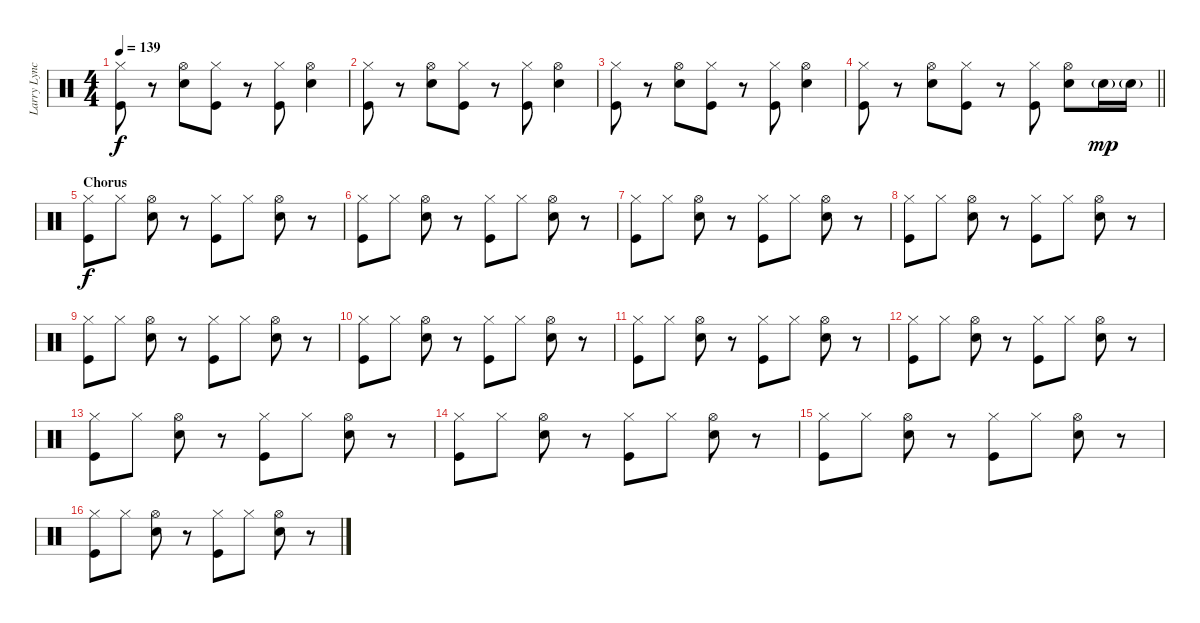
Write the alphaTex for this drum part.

\track ("Larry Lynch" "Larry Lync") {instrument percussion}
\staff {score}
\articulation defaults
\ts (4 4)
\tempo 139
\clef neutral
\ks c
("Hi-Hat (closed)" "Kick (hit)").8{dy f} r.8 ("Hi-Hat (open)" "Electric Snare (hit)").8 ("Hi-Hat (closed)" "Kick (hit)").8 r.8 ("Hi-Hat (closed)" "Kick (hit)").8 ("Hi-Hat (open)" "Electric Snare (hit)").4 |
("Hi-Hat (closed)" "Kick (hit)").8 r.8 ("Hi-Hat (open)" "Electric Snare (hit)").8 ("Hi-Hat (closed)" "Kick (hit)").8 r.8 ("Hi-Hat (closed)" "Kick (hit)").8 ("Hi-Hat (open)" "Electric Snare (hit)").4 |
("Hi-Hat (closed)" "Kick (hit)").8 r.8 ("Hi-Hat (open)" "Electric Snare (hit)").8 ("Hi-Hat (closed)" "Kick (hit)").8 r.8 ("Hi-Hat (closed)" "Kick (hit)").8 ("Hi-Hat (open)" "Electric Snare (hit)").4 |
\barLineRight lightlight
("Hi-Hat (closed)" "Kick (hit)").8 r.8 ("Hi-Hat (open)" "Electric Snare (hit)").8 ("Hi-Hat (closed)" "Kick (hit)").8 r.8 ("Hi-Hat (closed)" "Kick (hit)").8 ("Hi-Hat (open)" "Electric Snare (hit)").8 "Electric Snare (hit)"{g}.16{dy mp} "Electric Snare (hit)"{g}.16 |
\section ("" "Chorus")
("Hi-Hat (closed)" "Kick (hit)").8{dy f} "Hi-Hat (closed)".8 ("Hi-Hat (open)" "Electric Snare (hit)").8 r.8 ("Hi-Hat (closed)" "Kick (hit)").8 "Hi-Hat (closed)".8 ("Hi-Hat (open)" "Electric Snare (hit)").8 r.8 |
("Hi-Hat (closed)" "Kick (hit)").8 "Hi-Hat (closed)".8 ("Hi-Hat (open)" "Electric Snare (hit)").8 r.8 ("Hi-Hat (closed)" "Kick (hit)").8 "Hi-Hat (closed)".8 ("Hi-Hat (open)" "Electric Snare (hit)").8 r.8 |
("Hi-Hat (closed)" "Kick (hit)").8 "Hi-Hat (closed)".8 ("Hi-Hat (open)" "Electric Snare (hit)").8 r.8 ("Hi-Hat (closed)" "Kick (hit)").8 "Hi-Hat (closed)".8 ("Hi-Hat (open)" "Electric Snare (hit)").8 r.8 |
("Hi-Hat (closed)" "Kick (hit)").8 "Hi-Hat (closed)".8 ("Hi-Hat (open)" "Electric Snare (hit)").8 r.8 ("Hi-Hat (closed)" "Kick (hit)").8 "Hi-Hat (closed)".8 ("Hi-Hat (open)" "Electric Snare (hit)").8 r.8 |
("Hi-Hat (closed)" "Kick (hit)").8 "Hi-Hat (closed)".8 ("Hi-Hat (open)" "Electric Snare (hit)").8 r.8 ("Hi-Hat (closed)" "Kick (hit)").8 "Hi-Hat (closed)".8 ("Hi-Hat (open)" "Electric Snare (hit)").8 r.8 |
("Hi-Hat (closed)" "Kick (hit)").8 "Hi-Hat (closed)".8 ("Hi-Hat (open)" "Electric Snare (hit)").8 r.8 ("Hi-Hat (closed)" "Kick (hit)").8 "Hi-Hat (closed)".8 ("Hi-Hat (open)" "Electric Snare (hit)").8 r.8 |
("Hi-Hat (closed)" "Kick (hit)").8 "Hi-Hat (closed)".8 ("Hi-Hat (open)" "Electric Snare (hit)").8 r.8 ("Hi-Hat (closed)" "Kick (hit)").8 "Hi-Hat (closed)".8 ("Hi-Hat (open)" "Electric Snare (hit)").8 r.8 |
("Hi-Hat (closed)" "Kick (hit)").8 "Hi-Hat (closed)".8 ("Hi-Hat (open)" "Electric Snare (hit)").8 r.8 ("Hi-Hat (closed)" "Kick (hit)").8 "Hi-Hat (closed)".8 ("Hi-Hat (open)" "Electric Snare (hit)").8 r.8 |
("Hi-Hat (closed)" "Kick (hit)").8 "Hi-Hat (closed)".8 ("Hi-Hat (open)" "Electric Snare (hit)").8 r.8 ("Hi-Hat (closed)" "Kick (hit)").8 "Hi-Hat (closed)".8 ("Hi-Hat (open)" "Electric Snare (hit)").8 r.8 |
("Hi-Hat (closed)" "Kick (hit)").8 "Hi-Hat (closed)".8 ("Hi-Hat (open)" "Electric Snare (hit)").8 r.8 ("Hi-Hat (closed)" "Kick (hit)").8 "Hi-Hat (closed)".8 ("Hi-Hat (open)" "Electric Snare (hit)").8 r.8 |
("Hi-Hat (closed)" "Kick (hit)").8 "Hi-Hat (closed)".8 ("Hi-Hat (open)" "Electric Snare (hit)").8 r.8 ("Hi-Hat (closed)" "Kick (hit)").8 "Hi-Hat (closed)".8 ("Hi-Hat (open)" "Electric Snare (hit)").8 r.8 |
("Hi-Hat (closed)" "Kick (hit)").8 "Hi-Hat (closed)".8 ("Hi-Hat (open)" "Electric Snare (hit)").8 r.8 ("Hi-Hat (closed)" "Kick (hit)").8 "Hi-Hat (closed)".8 ("Hi-Hat (open)" "Electric Snare (hit)").8 r.8
